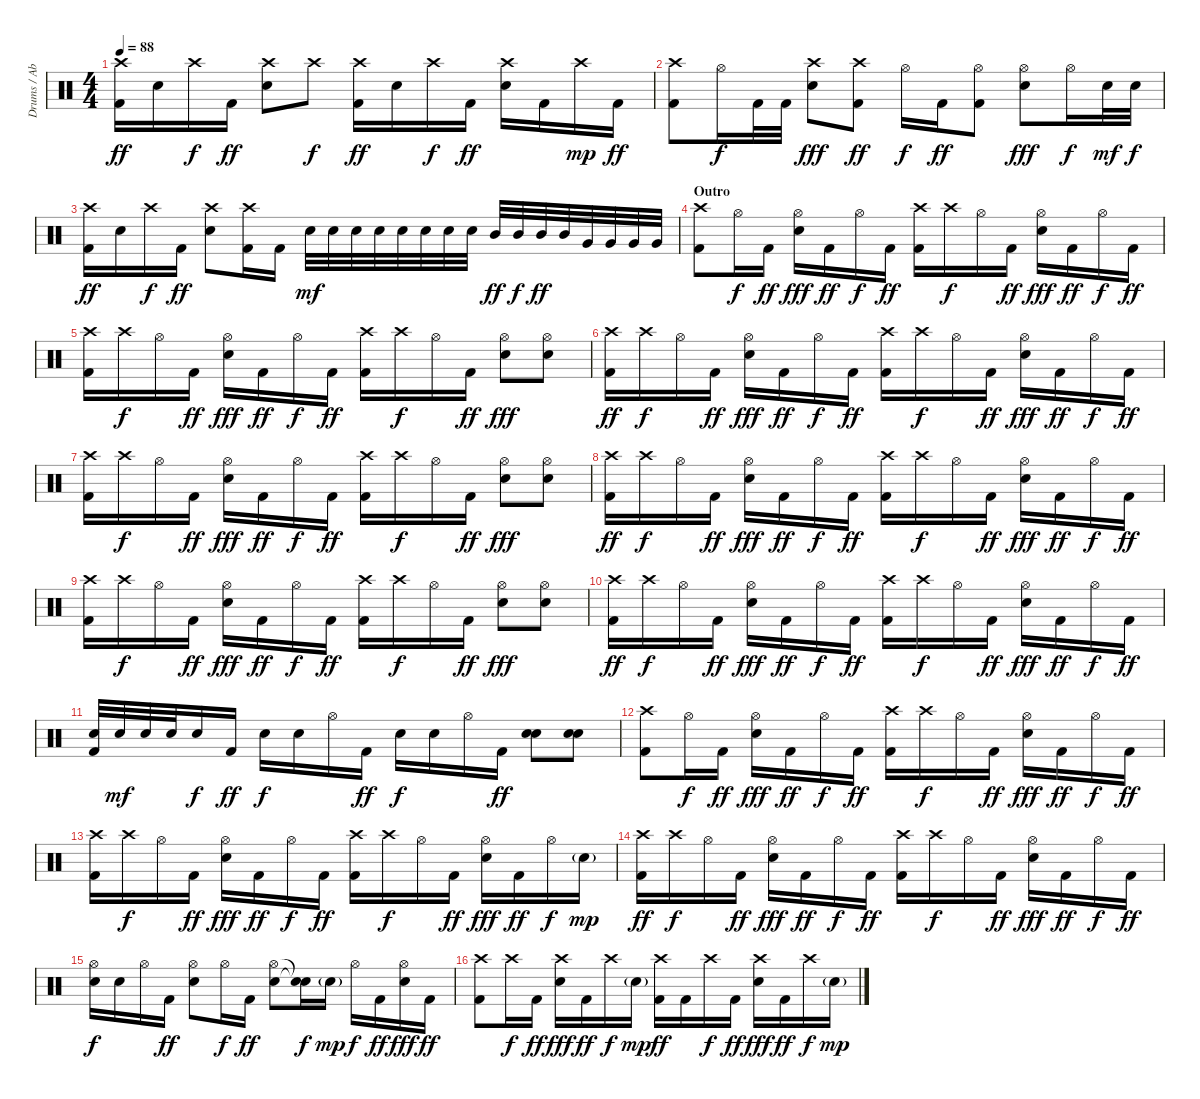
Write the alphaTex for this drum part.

\track ("Drums / Abe Cunningham" "Drums / Ab") {instrument percussion}
\staff {score}
\articulation defaults
\ts (4 4)
\tempo 88
\clef neutral
\ks c
("Crash high (hit)" "Kick (hit) 2").16{dy ff} "Electric Snare (hit)".16 "Crash high (hit)".16{dy f} "Kick (hit) 2".16{dy ff} ("Crash high (hit)" "Electric Snare (hit)").8 "Crash high (hit)".8{dy f} ("Crash high (hit)" "Kick (hit) 2").16{dy ff} "Electric Snare (hit)".16 "Crash high (hit)".16{dy f} "Kick (hit) 2".16{dy ff} ("Crash high (hit)" "Electric Snare (hit)").16 "Kick (hit) 2".16 "Crash high (hit)".16{dy mp} "Kick (hit) 2".16{dy ff} |
("Crash high (hit)" "Kick (hit) 2").8 "Hi-Hat (open)".16{dy f} "Kick (hit) 2".32 "Kick (hit) 2".32 ("Crash high (hit)" "Electric Snare (hit)").8{dy fff} ("Crash high (hit)" "Kick (hit) 2").8{dy ff} "Hi-Hat (open)".16{dy f} "Kick (hit) 2".16{dy ff} ("Hi-Hat (open)" "Kick (hit) 2").8 ("Hi-Hat (open)" "Electric Snare (hit)").8{dy fff} "Hi-Hat (open)".16{dy f} "Electric Snare (hit)".32{dy mf} "Electric Snare (hit)".32{dy f} |
("Crash high (hit)" "Kick (hit) 2").16{dy ff} "Electric Snare (hit)".16 "Crash high (hit)".16{dy f} "Kick (hit) 2".16{dy ff} ("Crash high (hit)" "Electric Snare (hit)").8 ("Crash high (hit)" "Kick (hit) 2").16 "Kick (hit) 2".16 "Electric Snare (hit)".32{dy mf} "Electric Snare (hit)".32 "Electric Snare (hit)".32 "Electric Snare (hit)".32 "Electric Snare (hit)".32 "Electric Snare (hit)".32 "Electric Snare (hit)".32 "Electric Snare (hit)".32 "Mid Tom (hit)".32{dy ff} "Mid Tom (hit)".32{dy f} "Mid Tom (hit)".32{dy ff} "Mid Tom (hit)".32 "Very Low Tom (hit)".32 "Very Low Tom (hit)".32 "Very Low Tom (hit)".32 "Very Low Tom (hit)".32 |
\section ("" "Outro")
("Crash high (hit)" "Kick (hit) 2").8 "Hi-Hat (open)".16{dy f} "Kick (hit) 2".16{dy ff} ("Hi-Hat (open)" "Electric Snare (hit)").16{dy fff} "Kick (hit) 2".16{dy ff} "Hi-Hat (open)".16{dy f} "Kick (hit) 2".16{dy ff} ("Crash high (hit)" "Kick (hit) 2").16 "Crash high (hit)".16{dy f} "Hi-Hat (open)".16 "Kick (hit) 2".16{dy ff} ("Hi-Hat (open)" "Electric Snare (hit)").16{dy fff} "Kick (hit) 2".16{dy ff} "Hi-Hat (open)".16{dy f} "Kick (hit) 2".16{dy ff} |
("Crash high (hit)" "Kick (hit) 2").16 "Crash high (hit)".16{dy f} "Hi-Hat (open)".16 "Kick (hit) 2".16{dy ff} ("Hi-Hat (open)" "Electric Snare (hit)").16{dy fff} "Kick (hit) 2".16{dy ff} "Hi-Hat (open)".16{dy f} "Kick (hit) 2".16{dy ff} ("Crash high (hit)" "Kick (hit) 2").16 "Crash high (hit)".16{dy f} "Hi-Hat (open)".16 "Kick (hit) 2".16{dy ff} ("Hi-Hat (open)" "Electric Snare (hit)").8{dy fff} ("Hi-Hat (open)" "Electric Snare (hit)").8 |
("Crash high (hit)" "Kick (hit) 2").16{dy ff} "Crash high (hit)".16{dy f} "Hi-Hat (open)".16 "Kick (hit) 2".16{dy ff} ("Hi-Hat (open)" "Electric Snare (hit)").16{dy fff} "Kick (hit) 2".16{dy ff} "Hi-Hat (open)".16{dy f} "Kick (hit) 2".16{dy ff} ("Crash high (hit)" "Kick (hit) 2").16 "Crash high (hit)".16{dy f} "Hi-Hat (open)".16 "Kick (hit) 2".16{dy ff} ("Hi-Hat (open)" "Electric Snare (hit)").16{dy fff} "Kick (hit) 2".16{dy ff} "Hi-Hat (open)".16{dy f} "Kick (hit) 2".16{dy ff} |
("Crash high (hit)" "Kick (hit) 2").16 "Crash high (hit)".16{dy f} "Hi-Hat (open)".16 "Kick (hit) 2".16{dy ff} ("Hi-Hat (open)" "Electric Snare (hit)").16{dy fff} "Kick (hit) 2".16{dy ff} "Hi-Hat (open)".16{dy f} "Kick (hit) 2".16{dy ff} ("Crash high (hit)" "Kick (hit) 2").16 "Crash high (hit)".16{dy f} "Hi-Hat (open)".16 "Kick (hit) 2".16{dy ff} ("Hi-Hat (open)" "Electric Snare (hit)").8{dy fff} ("Hi-Hat (open)" "Electric Snare (hit)").8 |
("Crash high (hit)" "Kick (hit) 2").16{dy ff} "Crash high (hit)".16{dy f} "Hi-Hat (open)".16 "Kick (hit) 2".16{dy ff} ("Hi-Hat (open)" "Electric Snare (hit)").16{dy fff} "Kick (hit) 2".16{dy ff} "Hi-Hat (open)".16{dy f} "Kick (hit) 2".16{dy ff} ("Crash high (hit)" "Kick (hit) 2").16 "Crash high (hit)".16{dy f} "Hi-Hat (open)".16 "Kick (hit) 2".16{dy ff} ("Hi-Hat (open)" "Electric Snare (hit)").16{dy fff} "Kick (hit) 2".16{dy ff} "Hi-Hat (open)".16{dy f} "Kick (hit) 2".16{dy ff} |
("Crash high (hit)" "Kick (hit) 2").16 "Crash high (hit)".16{dy f} "Hi-Hat (open)".16 "Kick (hit) 2".16{dy ff} ("Hi-Hat (open)" "Electric Snare (hit)").16{dy fff} "Kick (hit) 2".16{dy ff} "Hi-Hat (open)".16{dy f} "Kick (hit) 2".16{dy ff} ("Crash high (hit)" "Kick (hit) 2").16 "Crash high (hit)".16{dy f} "Hi-Hat (open)".16 "Kick (hit) 2".16{dy ff} ("Hi-Hat (open)" "Electric Snare (hit)").8{dy fff} ("Hi-Hat (open)" "Electric Snare (hit)").8 |
("Crash high (hit)" "Kick (hit) 2").16{dy ff} "Crash high (hit)".16{dy f} "Hi-Hat (open)".16 "Kick (hit) 2".16{dy ff} ("Hi-Hat (open)" "Electric Snare (hit)").16{dy fff} "Kick (hit) 2".16{dy ff} "Hi-Hat (open)".16{dy f} "Kick (hit) 2".16{dy ff} ("Crash high (hit)" "Kick (hit) 2").16 "Crash high (hit)".16{dy f} "Hi-Hat (open)".16 "Kick (hit) 2".16{dy ff} ("Hi-Hat (open)" "Electric Snare (hit)").16{dy fff} "Kick (hit) 2".16{dy ff} "Hi-Hat (open)".16{dy f} "Kick (hit) 2".16{dy ff} |
("Electric Snare (hit)" "Kick (hit) 2").32 "Electric Snare (hit)".32{dy mf} "Electric Snare (hit)".32 "Electric Snare (hit)".32 "Electric Snare (hit)".16{dy f} "Kick (hit) 2".16{dy ff} "Electric Snare (hit)".16{dy f} "Electric Snare (hit)".16 "Hi-Hat (open)".16 "Kick (hit) 2".16{dy ff} "Electric Snare (hit)".16{dy f} "Electric Snare (hit)".16 "Hi-Hat (open)".16 "Kick (hit) 2".16{dy ff} ("Electric Snare (hit)" "Electric Snare (hit)").8 ("Electric Snare (hit)" "Electric Snare (hit)").8 |
("Crash high (hit)" "Kick (hit) 2").8 "Hi-Hat (open)".16{dy f} "Kick (hit) 2".16{dy ff} ("Hi-Hat (open)" "Electric Snare (hit)").16{dy fff} "Kick (hit) 2".16{dy ff} "Hi-Hat (open)".16{dy f} "Kick (hit) 2".16{dy ff} ("Crash high (hit)" "Kick (hit) 2").16 "Crash high (hit)".16{dy f} "Hi-Hat (open)".16 "Kick (hit) 2".16{dy ff} ("Hi-Hat (open)" "Electric Snare (hit)").16{dy fff} "Kick (hit) 2".16{dy ff} "Hi-Hat (open)".16{dy f} "Kick (hit) 2".16{dy ff} |
("Crash high (hit)" "Kick (hit) 2").16 "Crash high (hit)".16{dy f} "Hi-Hat (open)".16 "Kick (hit) 2".16{dy ff} ("Hi-Hat (open)" "Electric Snare (hit)").16{dy fff} "Kick (hit) 2".16{dy ff} "Hi-Hat (open)".16{dy f} "Kick (hit) 2".16{dy ff} ("Crash high (hit)" "Kick (hit) 2").16 "Crash high (hit)".16{dy f} "Hi-Hat (open)".16 "Kick (hit) 2".16{dy ff} ("Hi-Hat (open)" "Electric Snare (hit)").16{dy fff} "Kick (hit) 2".16{dy ff} "Hi-Hat (open)".16{dy f} "Electric Snare (hit)"{g}.16{dy mp} |
("Crash high (hit)" "Kick (hit) 2").16{dy ff} "Crash high (hit)".16{dy f} "Hi-Hat (open)".16 "Kick (hit) 2".16{dy ff} ("Hi-Hat (open)" "Electric Snare (hit)").16{dy fff} "Kick (hit) 2".16{dy ff} "Hi-Hat (open)".16{dy f} "Kick (hit) 2".16{dy ff} ("Crash high (hit)" "Kick (hit) 2").16 "Crash high (hit)".16{dy f} "Hi-Hat (open)".16 "Kick (hit) 2".16{dy ff} ("Hi-Hat (open)" "Electric Snare (hit)").16{dy fff} "Kick (hit) 2".16{dy ff} "Hi-Hat (open)".16{dy f} "Kick (hit) 2".16{dy ff} |
("Hi-Hat (open)" "Electric Snare (hit)").16{dy f} "Electric Snare (hit)".16 "Hi-Hat (open)".16 "Kick (hit) 2".16{dy ff} ("Hi-Hat (open)" "Electric Snare (hit)").8 "Hi-Hat (open)".16{dy f} "Kick (hit) 2".16{dy ff} ("Hi-Hat (open)" "Electric Snare (hit)").8 ("Snare (hit)"{t} "Snare (hit)"{t}).16{dy f} "Electric Snare (hit)"{g}.16{dy mp} "Hi-Hat (open)".16{dy f} "Kick (hit) 2".16{dy ff} ("Hi-Hat (open)" "Electric Snare (hit)").16{dy fff} "Kick (hit) 2".16{dy ff} |
("Crash high (hit)" "Kick (hit) 2").8 "Crash high (hit)".16{dy f} "Kick (hit) 2".16{dy ff} ("Crash high (hit)" "Electric Snare (hit)").16{dy fff} "Kick (hit) 2".16{dy ff} "Crash high (hit)".16{dy f} "Electric Snare (hit)"{g}.16{dy mp} ("Crash high (hit)" "Kick (hit) 2").16{dy ff} "Kick (hit) 2".16 "Crash high (hit)".16{dy f} "Kick (hit) 2".16{dy ff} ("Crash high (hit)" "Electric Snare (hit)").16{dy fff} "Kick (hit) 2".16{dy ff} "Crash high (hit)".16{dy f} "Electric Snare (hit)"{g}.16{dy mp}
